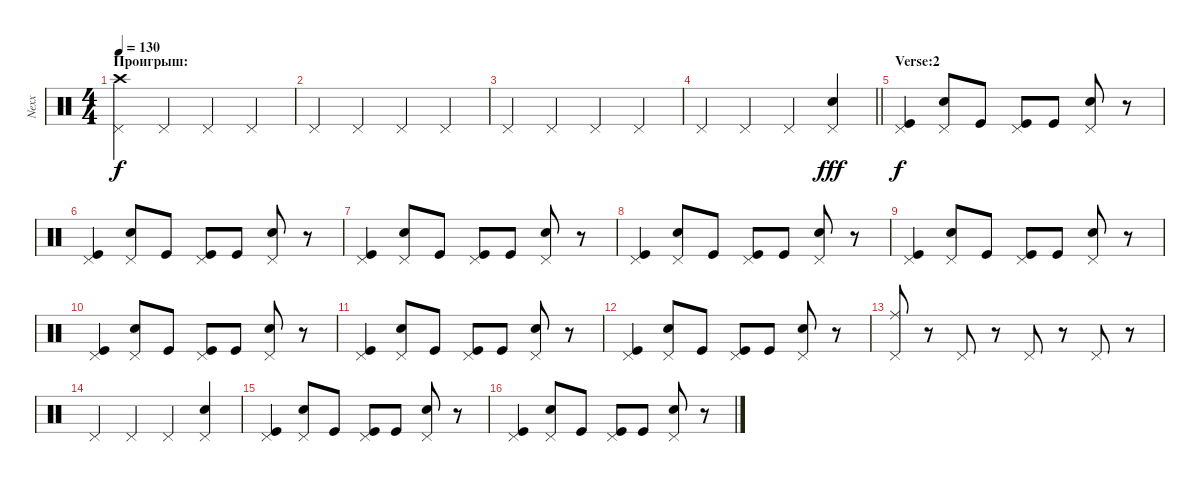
\track ("Nexx" "Nexx") {instrument percussion}
\staff {score}
\articulation defaults
\ts (4 4)
\section ("" "Проигрыш:")
\tempo 130
\clef neutral
\ks c
("Crash high (hit)" "Pedal Hi-Hat (hit)").4{dy f} "Pedal Hi-Hat (hit)".4 "Pedal Hi-Hat (hit)".4 "Pedal Hi-Hat (hit)".4 |
"Pedal Hi-Hat (hit)".4 "Pedal Hi-Hat (hit)".4 "Pedal Hi-Hat (hit)".4 "Pedal Hi-Hat (hit)".4 |
"Pedal Hi-Hat (hit)".4 "Pedal Hi-Hat (hit)".4 "Pedal Hi-Hat (hit)".4 "Pedal Hi-Hat (hit)".4 |
\barLineRight lightlight "Pedal Hi-Hat (hit)".4 "Pedal Hi-Hat (hit)".4 "Pedal Hi-Hat (hit)".4
("Electric Snare (hit)" "Pedal Hi-Hat (hit)").4{dy fff} |
\section ("" "Verse:2")
("Pedal Hi-Hat (hit)" "Kick (hit)").4{dy f} ("Pedal Hi-Hat (hit)" "Electric Snare (hit)").8 "Kick (hit)".8 ("Pedal Hi-Hat (hit)" "Kick (hit)").8 "Kick (hit)".8 ("Pedal Hi-Hat (hit)" "Electric Snare (hit)").8 r.8 |
("Pedal Hi-Hat (hit)" "Kick (hit)").4 ("Pedal Hi-Hat (hit)" "Electric Snare (hit)").8 "Kick (hit)".8 ("Pedal Hi-Hat (hit)" "Kick (hit)").8 "Kick (hit)".8 ("Pedal Hi-Hat (hit)" "Electric Snare (hit)").8 r.8 |
("Pedal Hi-Hat (hit)" "Kick (hit)").4 ("Pedal Hi-Hat (hit)" "Electric Snare (hit)").8 "Kick (hit)".8 ("Pedal Hi-Hat (hit)" "Kick (hit)").8 "Kick (hit)".8 ("Pedal Hi-Hat (hit)" "Electric Snare (hit)").8 r.8 |
("Pedal Hi-Hat (hit)" "Kick (hit)").4 ("Pedal Hi-Hat (hit)" "Electric Snare (hit)").8 "Kick (hit)".8 ("Pedal Hi-Hat (hit)" "Kick (hit)").8 "Kick (hit)".8 ("Pedal Hi-Hat (hit)" "Electric Snare (hit)").8 r.8 |
("Pedal Hi-Hat (hit)" "Kick (hit)").4 ("Pedal Hi-Hat (hit)" "Electric Snare (hit)").8 "Kick (hit)".8 ("Pedal Hi-Hat (hit)" "Kick (hit)").8 "Kick (hit)".8 ("Pedal Hi-Hat (hit)" "Electric Snare (hit)").8 r.8 |
("Pedal Hi-Hat (hit)" "Kick (hit)").4 ("Pedal Hi-Hat (hit)" "Electric Snare (hit)").8 "Kick (hit)".8 ("Pedal Hi-Hat (hit)" "Kick (hit)").8 "Kick (hit)".8 ("Pedal Hi-Hat (hit)" "Electric Snare (hit)").8 r.8 |
("Pedal Hi-Hat (hit)" "Kick (hit)").4 ("Pedal Hi-Hat (hit)" "Electric Snare (hit)").8 "Kick (hit)".8 ("Pedal Hi-Hat (hit)" "Kick (hit)").8 "Kick (hit)".8 ("Pedal Hi-Hat (hit)" "Electric Snare (hit)").8 r.8 |
("Pedal Hi-Hat (hit)" "Kick (hit)").4 ("Pedal Hi-Hat (hit)" "Electric Snare (hit)").8 "Kick (hit)".8 ("Pedal Hi-Hat (hit)" "Kick (hit)").8 "Kick (hit)".8 ("Pedal Hi-Hat (hit)" "Electric Snare (hit)").8 r.8 |
("Pedal Hi-Hat (hit)" "Ride (middle)").8 r.8 "Pedal Hi-Hat (hit)".8 r.8 "Pedal Hi-Hat (hit)".8 r.8 "Pedal Hi-Hat (hit)".8 r.8 |
"Pedal Hi-Hat (hit)".4 "Pedal Hi-Hat (hit)".4 "Pedal Hi-Hat (hit)".4 ("Electric Snare (hit)" "Pedal Hi-Hat (hit)").4 |
("Pedal Hi-Hat (hit)" "Kick (hit)").4 ("Pedal Hi-Hat (hit)" "Electric Snare (hit)").8 "Kick (hit)".8 ("Pedal Hi-Hat (hit)" "Kick (hit)").8 "Kick (hit)".8 ("Pedal Hi-Hat (hit)" "Electric Snare (hit)").8 r.8 |
("Pedal Hi-Hat (hit)" "Kick (hit)").4 ("Pedal Hi-Hat (hit)" "Electric Snare (hit)").8 "Kick (hit)".8 ("Pedal Hi-Hat (hit)" "Kick (hit)").8 "Kick (hit)".8 ("Pedal Hi-Hat (hit)" "Electric Snare (hit)").8 r.8
